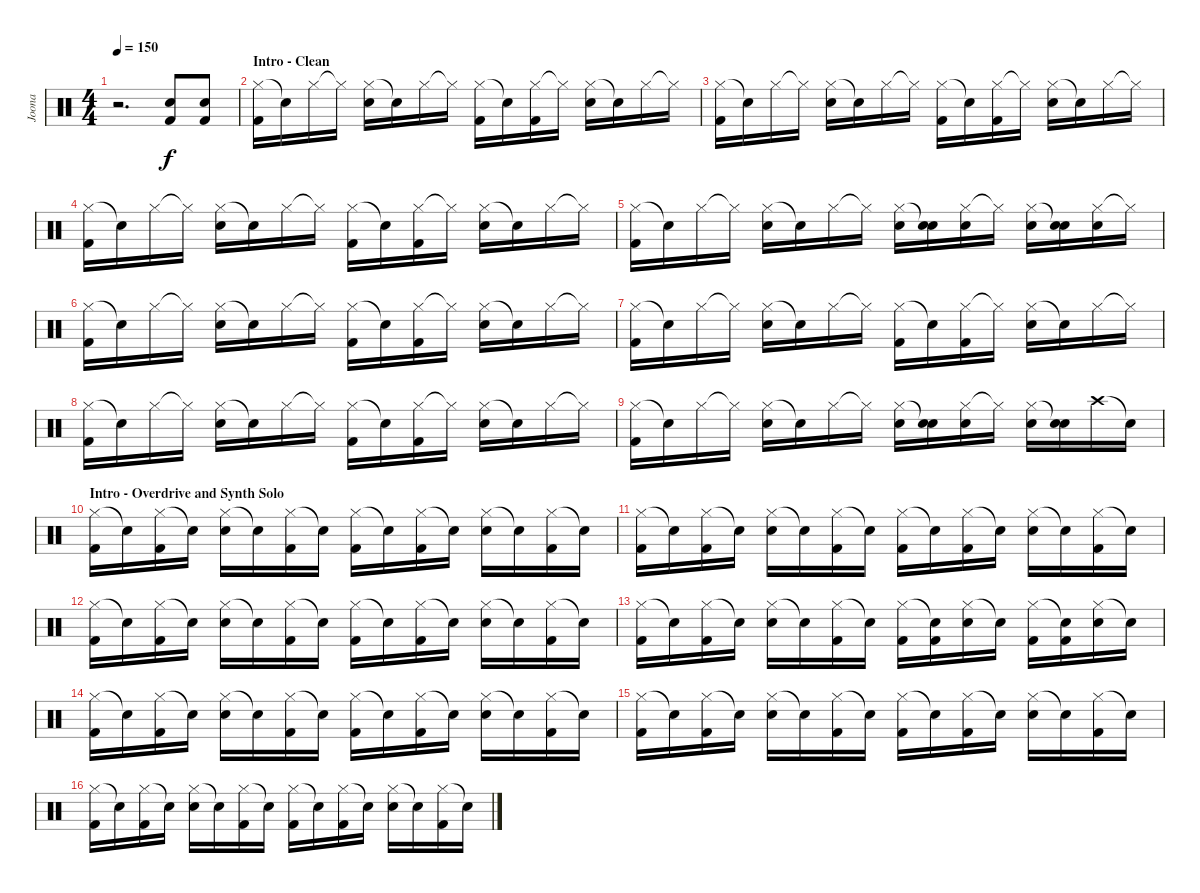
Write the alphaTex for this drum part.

\track ("Joona" "Joona") {instrument percussion}
\staff {score}
\articulation defaults
\ts (4 4)
\tempo 150
\clef neutral
\ks c
r.2{d dy f} ("Kick (hit) 2" "Snare (hit) 2").8 ("Kick (hit) 2" "Snare (hit) 2").8 |
\section ("" "Intro - Clean")
("Hi-Hat (closed)" "Kick (hit) 2").16 "Snare (hit)"{t}.16 "Hi-Hat (closed)".16 "Hi-Hat (closed)"{t}.16 ("Hi-Hat (closed)" "Snare (hit) 2").16 "Snare (hit)"{t}.16 "Hi-Hat (closed)".16 "Hi-Hat (closed)"{t}.16 ("Hi-Hat (closed)" "Kick (hit) 2").16 "Snare (hit)"{t}.16 ("Hi-Hat (closed)" "Kick (hit) 2").16 "Hi-Hat (closed)"{t}.16 ("Hi-Hat (closed)" "Snare (hit) 2").16 "Snare (hit)"{t}.16 "Hi-Hat (closed)".16 "Hi-Hat (closed)"{t}.16 |
("Hi-Hat (closed)" "Kick (hit) 2").16 "Snare (hit)"{t}.16 "Hi-Hat (closed)".16 "Hi-Hat (closed)"{t}.16 ("Hi-Hat (closed)" "Snare (hit) 2").16 "Snare (hit)"{t}.16 "Hi-Hat (closed)".16 "Hi-Hat (closed)"{t}.16 ("Hi-Hat (closed)" "Kick (hit) 2").16 "Snare (hit)"{t}.16 ("Hi-Hat (closed)" "Kick (hit) 2").16 "Hi-Hat (closed)"{t}.16 ("Hi-Hat (closed)" "Snare (hit) 2").16 "Snare (hit)"{t}.16 "Hi-Hat (closed)".16 "Hi-Hat (closed)"{t}.16 |
("Hi-Hat (closed)" "Kick (hit) 2").16 "Snare (hit)"{t}.16 "Hi-Hat (closed)".16 "Hi-Hat (closed)"{t}.16 ("Hi-Hat (closed)" "Snare (hit) 2").16 "Snare (hit)"{t}.16 "Hi-Hat (closed)".16 "Hi-Hat (closed)"{t}.16 ("Hi-Hat (closed)" "Kick (hit) 2").16 "Snare (hit)"{t}.16 ("Hi-Hat (closed)" "Kick (hit) 2").16 "Hi-Hat (closed)"{t}.16 ("Hi-Hat (closed)" "Snare (hit) 2").16 "Snare (hit)"{t}.16 "Hi-Hat (closed)".16 "Hi-Hat (closed)"{t}.16 |
("Hi-Hat (closed)" "Kick (hit) 2").16 "Snare (hit)"{t}.16 "Hi-Hat (closed)".16 "Hi-Hat (closed)"{t}.16 ("Hi-Hat (closed)" "Snare (hit) 2").16 "Snare (hit)"{t}.16 "Hi-Hat (closed)".16 "Hi-Hat (closed)"{t}.16 ("Hi-Hat (closed)" "Snare (hit) 2").16 ("Snare (hit)"{t} "Snare (hit) 2").16 ("Hi-Hat (closed)" "Snare (hit) 2").16 "Hi-Hat (closed)"{t}.16 ("Hi-Hat (closed)" "Snare (hit) 2").16 ("Snare (hit)"{t} "Snare (hit) 2").16 ("Hi-Hat (closed)" "Snare (hit) 2").16 "Hi-Hat (closed)"{t}.16 |
("Hi-Hat (closed)" "Kick (hit) 2").16 "Snare (hit)"{t}.16 "Hi-Hat (closed)".16 "Hi-Hat (closed)"{t}.16 ("Hi-Hat (closed)" "Snare (hit) 2").16 "Snare (hit)"{t}.16 "Hi-Hat (closed)".16 "Hi-Hat (closed)"{t}.16 ("Hi-Hat (closed)" "Kick (hit) 2").16 "Snare (hit)"{t}.16 ("Hi-Hat (closed)" "Kick (hit) 2").16 "Hi-Hat (closed)"{t}.16 ("Hi-Hat (closed)" "Snare (hit) 2").16 "Snare (hit)"{t}.16 "Hi-Hat (closed)".16 "Hi-Hat (closed)"{t}.16 |
("Hi-Hat (closed)" "Kick (hit) 2").16 "Snare (hit)"{t}.16 "Hi-Hat (closed)".16 "Hi-Hat (closed)"{t}.16 ("Hi-Hat (closed)" "Snare (hit) 2").16 "Snare (hit)"{t}.16 "Hi-Hat (closed)".16 "Hi-Hat (closed)"{t}.16 ("Hi-Hat (closed)" "Kick (hit) 2").16 "Snare (hit)"{t}.16 ("Hi-Hat (closed)" "Kick (hit) 2").16 "Hi-Hat (closed)"{t}.16 ("Hi-Hat (closed)" "Snare (hit) 2").16 "Snare (hit)"{t}.16 "Hi-Hat (closed)".16 "Hi-Hat (closed)"{t}.16 |
("Hi-Hat (closed)" "Kick (hit) 2").16 "Snare (hit)"{t}.16 "Hi-Hat (closed)".16 "Hi-Hat (closed)"{t}.16 ("Hi-Hat (closed)" "Snare (hit) 2").16 "Snare (hit)"{t}.16 "Hi-Hat (closed)".16 "Hi-Hat (closed)"{t}.16 ("Hi-Hat (closed)" "Kick (hit) 2").16 "Snare (hit)"{t}.16 ("Hi-Hat (closed)" "Kick (hit) 2").16 "Hi-Hat (closed)"{t}.16 ("Hi-Hat (closed)" "Snare (hit) 2").16 "Snare (hit)"{t}.16 "Hi-Hat (closed)".16 "Hi-Hat (closed)"{t}.16 |
("Hi-Hat (closed)" "Kick (hit) 2").16 "Snare (hit)"{t}.16 "Hi-Hat (closed)".16 "Hi-Hat (closed)"{t}.16 ("Hi-Hat (closed)" "Snare (hit) 2").16 "Snare (hit)"{t}.16 "Hi-Hat (closed)".16 "Hi-Hat (closed)"{t}.16 ("Hi-Hat (closed)" "Snare (hit) 2").16 ("Snare (hit)"{t} "Snare (hit) 2").16 ("Hi-Hat (closed)" "Snare (hit) 2").16 "Hi-Hat (closed)"{t}.16 ("Hi-Hat (closed)" "Snare (hit) 2").16 ("Snare (hit)"{t} "Snare (hit) 2").16 "Crash high (hit)".16 "Snare (hit)"{t}.16 |
\section ("" "Intro - Overdrive and Synth Solo")
("Hi-Hat (closed)" "Kick (hit) 2").16 "Snare (hit)"{t}.16 ("Hi-Hat (closed)" "Kick (hit) 2").16 "Snare (hit)"{t}.16 ("Hi-Hat (closed)" "Snare (hit) 2").16 "Snare (hit)"{t}.16 ("Hi-Hat (closed)" "Kick (hit) 2").16 "Snare (hit)"{t}.16 ("Hi-Hat (closed)" "Kick (hit) 2").16 "Snare (hit)"{t}.16 ("Hi-Hat (closed)" "Kick (hit) 2").16 "Snare (hit)"{t}.16 ("Hi-Hat (closed)" "Snare (hit) 2").16 "Snare (hit)"{t}.16 ("Hi-Hat (closed)" "Kick (hit) 2").16 "Snare (hit)"{t}.16 |
("Hi-Hat (closed)" "Kick (hit) 2").16 "Snare (hit)"{t}.16 ("Hi-Hat (closed)" "Kick (hit) 2").16 "Snare (hit)"{t}.16 ("Hi-Hat (closed)" "Snare (hit) 2").16 "Snare (hit)"{t}.16 ("Hi-Hat (closed)" "Kick (hit) 2").16 "Snare (hit)"{t}.16 ("Hi-Hat (closed)" "Kick (hit) 2").16 "Snare (hit)"{t}.16 ("Hi-Hat (closed)" "Kick (hit) 2").16 "Snare (hit)"{t}.16 ("Hi-Hat (closed)" "Snare (hit) 2").16 "Snare (hit)"{t}.16 ("Hi-Hat (closed)" "Kick (hit) 2").16 "Snare (hit)"{t}.16 |
("Hi-Hat (closed)" "Kick (hit) 2").16 "Snare (hit)"{t}.16 ("Hi-Hat (closed)" "Kick (hit) 2").16 "Snare (hit)"{t}.16 ("Hi-Hat (closed)" "Snare (hit) 2").16 "Snare (hit)"{t}.16 ("Hi-Hat (closed)" "Kick (hit) 2").16 "Snare (hit)"{t}.16 ("Hi-Hat (closed)" "Kick (hit) 2").16 "Snare (hit)"{t}.16 ("Hi-Hat (closed)" "Kick (hit) 2").16 "Snare (hit)"{t}.16 ("Hi-Hat (closed)" "Snare (hit) 2").16 "Snare (hit)"{t}.16 ("Hi-Hat (closed)" "Kick (hit) 2").16 "Snare (hit)"{t}.16 |
("Hi-Hat (closed)" "Kick (hit) 2").16 "Snare (hit)"{t}.16 ("Hi-Hat (closed)" "Kick (hit) 2").16 "Snare (hit)"{t}.16 ("Hi-Hat (closed)" "Snare (hit) 2").16 "Snare (hit)"{t}.16 ("Hi-Hat (closed)" "Kick (hit) 2").16 "Snare (hit)"{t}.16 ("Hi-Hat (closed)" "Kick (hit) 2").16 ("Snare (hit)"{t} "Kick (hit) 2").16 ("Hi-Hat (closed)" "Snare (hit) 2").16 "Snare (hit)"{t}.16 ("Hi-Hat (closed)" "Kick (hit) 2").16 ("Snare (hit)"{t} "Kick (hit) 2").16 ("Hi-Hat (closed)" "Snare (hit) 2").16 "Snare (hit)"{t}.16 |
("Hi-Hat (closed)" "Kick (hit) 2").16 "Snare (hit)"{t}.16 ("Hi-Hat (closed)" "Kick (hit) 2").16 "Snare (hit)"{t}.16 ("Hi-Hat (closed)" "Snare (hit) 2").16 "Snare (hit)"{t}.16 ("Hi-Hat (closed)" "Kick (hit) 2").16 "Snare (hit)"{t}.16 ("Hi-Hat (closed)" "Kick (hit) 2").16 "Snare (hit)"{t}.16 ("Hi-Hat (closed)" "Kick (hit) 2").16 "Snare (hit)"{t}.16 ("Hi-Hat (closed)" "Snare (hit) 2").16 "Snare (hit)"{t}.16 ("Hi-Hat (closed)" "Kick (hit) 2").16 "Snare (hit)"{t}.16 |
("Hi-Hat (closed)" "Kick (hit) 2").16 "Snare (hit)"{t}.16 ("Hi-Hat (closed)" "Kick (hit) 2").16 "Snare (hit)"{t}.16 ("Hi-Hat (closed)" "Snare (hit) 2").16 "Snare (hit)"{t}.16 ("Hi-Hat (closed)" "Kick (hit) 2").16 "Snare (hit)"{t}.16 ("Hi-Hat (closed)" "Kick (hit) 2").16 "Snare (hit)"{t}.16 ("Hi-Hat (closed)" "Kick (hit) 2").16 "Snare (hit)"{t}.16 ("Hi-Hat (closed)" "Snare (hit) 2").16 "Snare (hit)"{t}.16 ("Hi-Hat (closed)" "Kick (hit) 2").16 "Snare (hit)"{t}.16 |
("Hi-Hat (closed)" "Kick (hit) 2").16 "Snare (hit)"{t}.16 ("Hi-Hat (closed)" "Kick (hit) 2").16 "Snare (hit)"{t}.16 ("Hi-Hat (closed)" "Snare (hit) 2").16 "Snare (hit)"{t}.16 ("Hi-Hat (closed)" "Kick (hit) 2").16 "Snare (hit)"{t}.16 ("Hi-Hat (closed)" "Kick (hit) 2").16 "Snare (hit)"{t}.16 ("Hi-Hat (closed)" "Kick (hit) 2").16 "Snare (hit)"{t}.16 ("Hi-Hat (closed)" "Snare (hit) 2").16 "Snare (hit)"{t}.16 ("Hi-Hat (closed)" "Kick (hit) 2").16 "Snare (hit)"{t}.16
